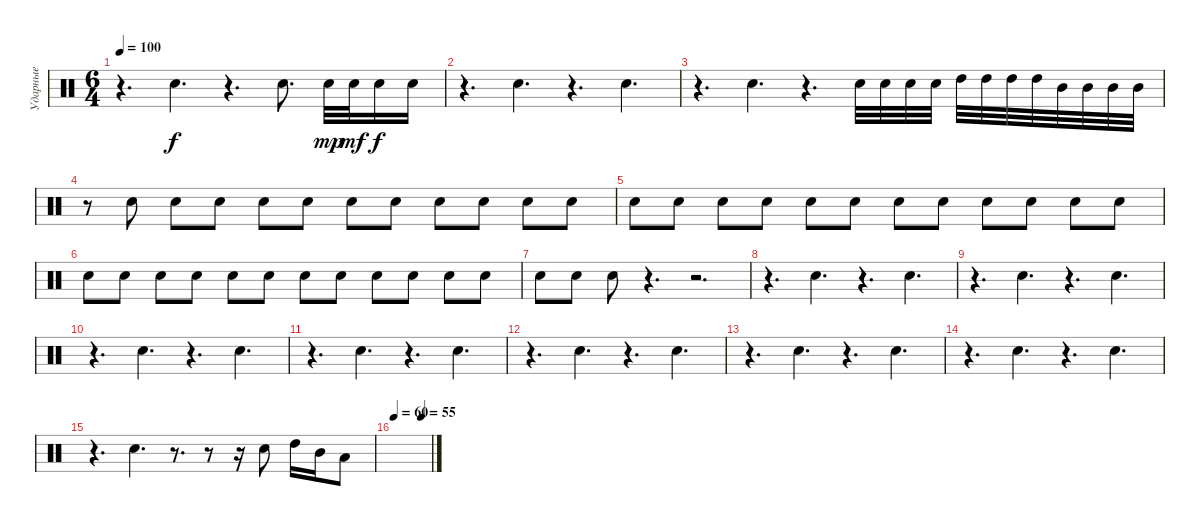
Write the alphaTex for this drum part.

\track ("Ударные" "Ударные") {instrument percussion}
\staff {score}
\articulation defaults
\ts (6 4)
\tempo 100
\clef neutral
\ks c
r.4{d dy f} "Electric Snare (hit)".4{d} r.4{d} "Electric Snare (hit)".8{d} "Electric Snare (hit)".32{dy mp} "Electric Snare (hit)".32{dy mf} "Electric Snare (hit)".16{dy f} "Electric Snare (hit)".16 |
r.4{d} "Electric Snare (hit)".4{d} r.4{d} "Electric Snare (hit)".4{d} |
r.4{d} "Electric Snare (hit)".4{d} r.4{d} "Electric Snare (hit)".32 "Electric Snare (hit)".32 "Electric Snare (hit)".32 "Electric Snare (hit)".32 "High Tom (hit)".32 "High Tom (hit)".32 "High Tom (hit)".32 "High Tom (hit)".32 "Mid Tom (hit)".32 "Mid Tom (hit)".32 "Mid Tom (hit)".32 "Mid Tom (hit)".32 |
r.8 "Electric Snare (hit)".8 "Electric Snare (hit)".8 "Electric Snare (hit)".8 "Electric Snare (hit)".8 "Electric Snare (hit)".8 "Electric Snare (hit)".8 "Electric Snare (hit)".8 "Electric Snare (hit)".8 "Electric Snare (hit)".8 "Electric Snare (hit)".8 "Electric Snare (hit)".8 |
"Electric Snare (hit)".8 "Electric Snare (hit)".8 "Electric Snare (hit)".8 "Electric Snare (hit)".8 "Electric Snare (hit)".8 "Electric Snare (hit)".8 "Electric Snare (hit)".8 "Electric Snare (hit)".8 "Electric Snare (hit)".8 "Electric Snare (hit)".8 "Electric Snare (hit)".8 "Electric Snare (hit)".8 |
"Electric Snare (hit)".8 "Electric Snare (hit)".8 "Electric Snare (hit)".8 "Electric Snare (hit)".8 "Electric Snare (hit)".8 "Electric Snare (hit)".8 "Electric Snare (hit)".8 "Electric Snare (hit)".8 "Electric Snare (hit)".8 "Electric Snare (hit)".8 "Electric Snare (hit)".8 "Electric Snare (hit)".8 |
"Electric Snare (hit)".8 "Electric Snare (hit)".8 "Electric Snare (hit)".8 r.4{d} r.2{d} |
r.4{d} "Electric Snare (hit)".4{d} r.4{d} "Electric Snare (hit)".4{d} |
r.4{d} "Electric Snare (hit)".4{d} r.4{d} "Electric Snare (hit)".4{d} |
r.4{d} "Electric Snare (hit)".4{d} r.4{d} "Electric Snare (hit)".4{d} |
r.4{d} "Electric Snare (hit)".4{d} r.4{d} "Electric Snare (hit)".4{d} |
r.4{d} "Electric Snare (hit)".4{d} r.4{d} "Electric Snare (hit)".4{d} |
r.4{d} "Electric Snare (hit)".4{d} r.4{d} "Electric Snare (hit)".4{d} |
r.4{d} "Electric Snare (hit)".4{d} r.4{d} "Electric Snare (hit)".4{d} |
r.4{d} "Electric Snare (hit)".4{d} r.8{d} r.8 r.16 "Electric Snare (hit)".8 "High Tom (hit)".16 "Mid Tom (hit)".16 "Low Tom (hit)".8 |
\tempo 60
\tempo (55 0.75)
